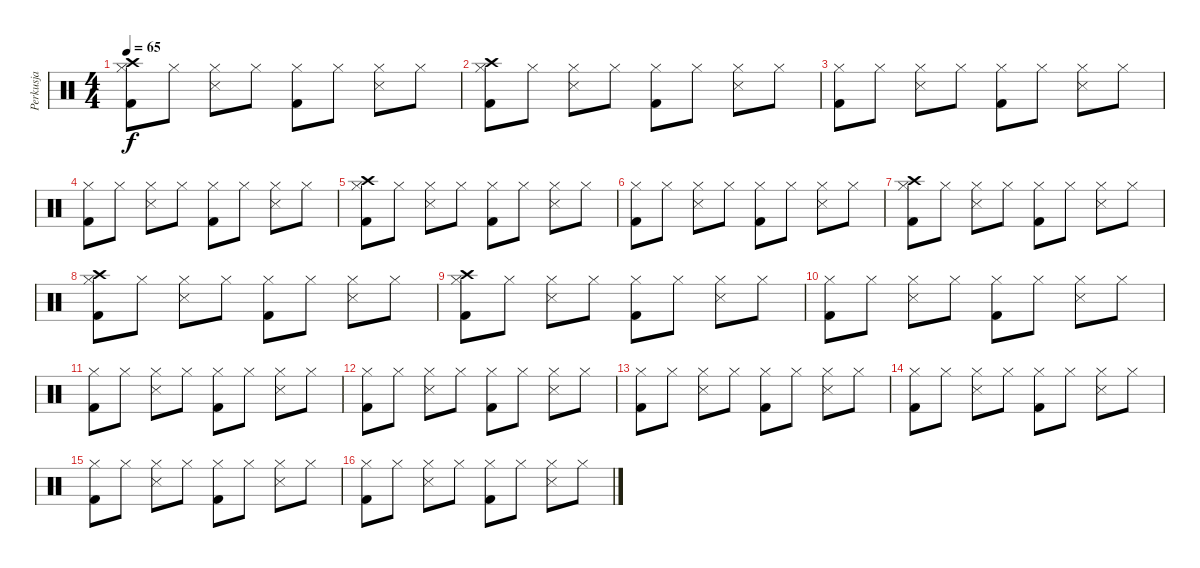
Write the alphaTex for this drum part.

\track ("Perkusja" "Perkusja") {instrument percussion}
\staff {score}
\articulation defaults
\ts (4 4)
\tempo 65
\clef neutral
\ks c
("Kick (hit) 2" "Hi-Hat (closed)" "Crash high (hit)").8{dy f} "Hi-Hat (closed)".8 ("Snare (side stick) 3" "Hi-Hat (closed)").8 "Hi-Hat (closed)".8 ("Kick (hit) 2" "Hi-Hat (closed)").8 "Hi-Hat (closed)".8 ("Snare (side stick) 3" "Hi-Hat (closed)").8 "Hi-Hat (closed)".8 |
("Kick (hit) 2" "Hi-Hat (closed)" "Crash high (hit)").8 "Hi-Hat (closed)".8 ("Snare (side stick) 3" "Hi-Hat (closed)").8 "Hi-Hat (closed)".8 ("Kick (hit) 2" "Hi-Hat (closed)").8 "Hi-Hat (closed)".8 ("Snare (side stick) 3" "Hi-Hat (closed)").8 "Hi-Hat (closed)".8 |
("Kick (hit) 2" "Hi-Hat (closed)").8 "Hi-Hat (closed)".8 ("Snare (side stick) 3" "Hi-Hat (closed)").8 "Hi-Hat (closed)".8 ("Kick (hit) 2" "Hi-Hat (closed)").8 "Hi-Hat (closed)".8 ("Snare (side stick) 3" "Hi-Hat (closed)").8 "Hi-Hat (closed)".8 |
("Kick (hit) 2" "Hi-Hat (closed)").8 "Hi-Hat (closed)".8 ("Snare (side stick) 3" "Hi-Hat (closed)").8 "Hi-Hat (closed)".8 ("Kick (hit) 2" "Hi-Hat (closed)").8 "Hi-Hat (closed)".8 ("Snare (side stick) 3" "Hi-Hat (closed)").8 "Hi-Hat (closed)".8 |
("Kick (hit) 2" "Hi-Hat (closed)" "Crash high (hit)").8 "Hi-Hat (closed)".8 ("Snare (side stick) 3" "Hi-Hat (closed)").8 "Hi-Hat (closed)".8 ("Kick (hit) 2" "Hi-Hat (closed)").8 "Hi-Hat (closed)".8 ("Snare (side stick) 3" "Hi-Hat (closed)").8 "Hi-Hat (closed)".8 |
("Kick (hit) 2" "Hi-Hat (closed)").8 "Hi-Hat (closed)".8 ("Snare (side stick) 3" "Hi-Hat (closed)").8 "Hi-Hat (closed)".8 ("Kick (hit) 2" "Hi-Hat (closed)").8 "Hi-Hat (closed)".8 ("Snare (side stick) 3" "Hi-Hat (closed)").8 "Hi-Hat (closed)".8 |
("Kick (hit) 2" "Hi-Hat (closed)" "Crash high (hit)").8 "Hi-Hat (closed)".8 ("Snare (side stick) 3" "Hi-Hat (closed)").8 "Hi-Hat (closed)".8 ("Kick (hit) 2" "Hi-Hat (closed)").8 "Hi-Hat (closed)".8 ("Snare (side stick) 3" "Hi-Hat (closed)").8 "Hi-Hat (closed)".8 |
("Kick (hit) 2" "Hi-Hat (closed)" "Crash high (hit)").8 "Hi-Hat (closed)".8 ("Snare (side stick) 3" "Hi-Hat (closed)").8 "Hi-Hat (closed)".8 ("Kick (hit) 2" "Hi-Hat (closed)").8 "Hi-Hat (closed)".8 ("Snare (side stick) 3" "Hi-Hat (closed)").8 "Hi-Hat (closed)".8 |
("Kick (hit) 2" "Hi-Hat (closed)" "Crash high (hit)").8 "Hi-Hat (closed)".8 ("Snare (side stick) 3" "Hi-Hat (closed)").8 "Hi-Hat (closed)".8 ("Kick (hit) 2" "Hi-Hat (closed)").8 "Hi-Hat (closed)".8 ("Snare (side stick) 3" "Hi-Hat (closed)").8 "Hi-Hat (closed)".8 |
("Kick (hit) 2" "Hi-Hat (closed)").8 "Hi-Hat (closed)".8 ("Snare (side stick) 3" "Hi-Hat (closed)").8 "Hi-Hat (closed)".8 ("Kick (hit) 2" "Hi-Hat (closed)").8 "Hi-Hat (closed)".8 ("Snare (side stick) 3" "Hi-Hat (closed)").8 "Hi-Hat (closed)".8 |
("Kick (hit) 2" "Hi-Hat (closed)").8 "Hi-Hat (closed)".8 ("Snare (side stick) 3" "Hi-Hat (closed)").8 "Hi-Hat (closed)".8 ("Kick (hit) 2" "Hi-Hat (closed)").8 "Hi-Hat (closed)".8 ("Snare (side stick) 3" "Hi-Hat (closed)").8 "Hi-Hat (closed)".8 |
("Kick (hit) 2" "Hi-Hat (closed)").8 "Hi-Hat (closed)".8 ("Snare (side stick) 3" "Hi-Hat (closed)").8 "Hi-Hat (closed)".8 ("Kick (hit) 2" "Hi-Hat (closed)").8 "Hi-Hat (closed)".8 ("Snare (side stick) 3" "Hi-Hat (closed)").8 "Hi-Hat (closed)".8 |
("Kick (hit) 2" "Hi-Hat (closed)").8 "Hi-Hat (closed)".8 ("Snare (side stick) 3" "Hi-Hat (closed)").8 "Hi-Hat (closed)".8 ("Kick (hit) 2" "Hi-Hat (closed)").8 "Hi-Hat (closed)".8 ("Snare (side stick) 3" "Hi-Hat (closed)").8 "Hi-Hat (closed)".8 |
("Kick (hit) 2" "Hi-Hat (closed)").8 "Hi-Hat (closed)".8 ("Snare (side stick) 3" "Hi-Hat (closed)").8 "Hi-Hat (closed)".8 ("Kick (hit) 2" "Hi-Hat (closed)").8 "Hi-Hat (closed)".8 ("Snare (side stick) 3" "Hi-Hat (closed)").8 "Hi-Hat (closed)".8 |
("Kick (hit) 2" "Hi-Hat (closed)").8 "Hi-Hat (closed)".8 ("Snare (side stick) 3" "Hi-Hat (closed)").8 "Hi-Hat (closed)".8 ("Kick (hit) 2" "Hi-Hat (closed)").8 "Hi-Hat (closed)".8 ("Snare (side stick) 3" "Hi-Hat (closed)").8 "Hi-Hat (closed)".8 |
("Kick (hit) 2" "Hi-Hat (closed)").8 "Hi-Hat (closed)".8 ("Snare (side stick) 3" "Hi-Hat (closed)").8 "Hi-Hat (closed)".8 ("Kick (hit) 2" "Hi-Hat (closed)").8 "Hi-Hat (closed)".8 ("Snare (side stick) 3" "Hi-Hat (closed)").8 "Hi-Hat (closed)".8
